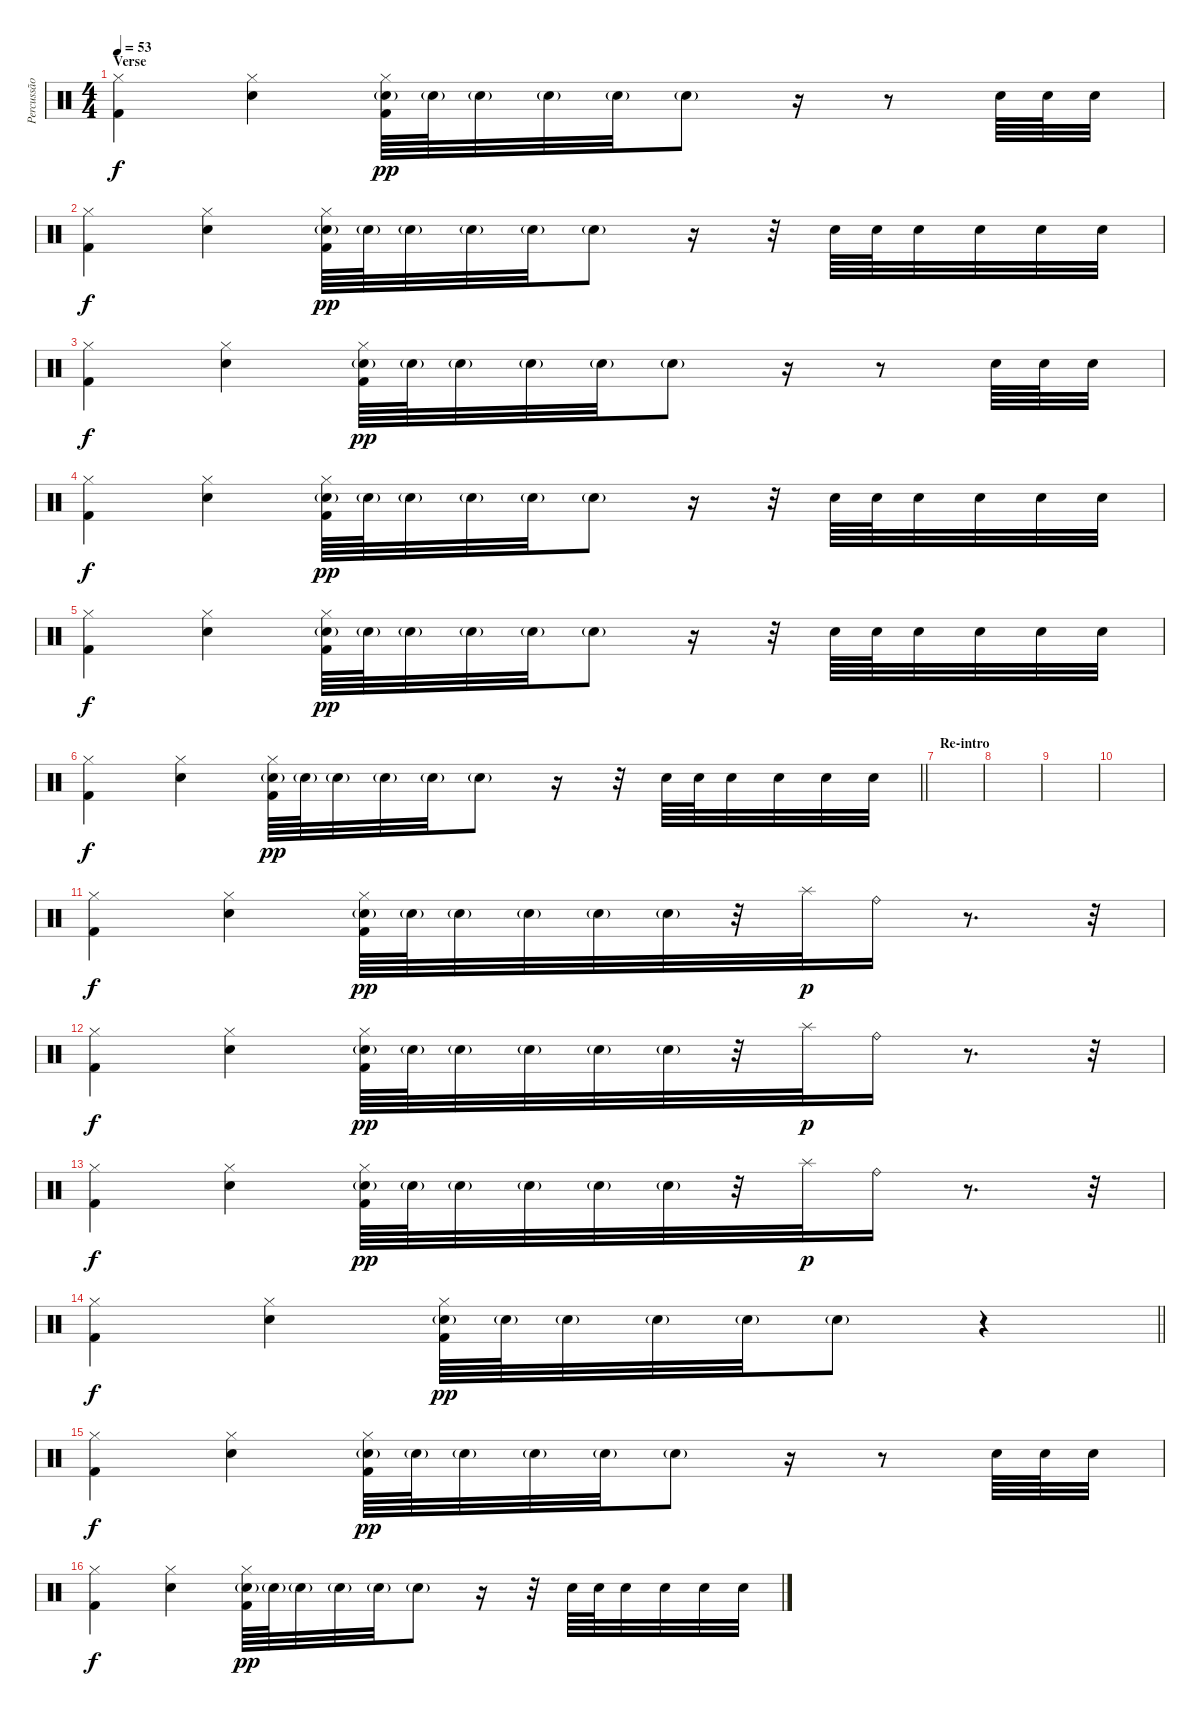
\track ("Percussão" "Percussão") {instrument percussion}
\staff {score}
\articulation defaults
\ts (4 4)
\section ("" "Verse")
\tempo 53
\clef neutral
\ks c
("Hi-Hat (closed)" "Kick (hit) 2").4{dy f} ("Hi-Hat (closed)" "Electric Snare (hit)").4 ("Hi-Hat (closed)" "Electric Snare (hit)"{g} "Kick (hit) 2").64{dy pp} "Electric Snare (hit)"{g}.64 "Electric Snare (hit)"{g}.32 "Electric Snare (hit)"{g}.32 "Electric Snare (hit)"{g}.32 "Electric Snare (hit)"{g}.8 r.16 r.8 "Electric Snare (hit)".64 "Electric Snare (hit)".64 "Electric Snare (hit)".32 |
("Hi-Hat (closed)" "Kick (hit) 2").4{dy f} ("Hi-Hat (closed)" "Electric Snare (hit)").4 ("Hi-Hat (closed)" "Electric Snare (hit)"{g} "Kick (hit) 2").64{dy pp} "Electric Snare (hit)"{g}.64 "Electric Snare (hit)"{g}.32 "Electric Snare (hit)"{g}.32 "Electric Snare (hit)"{g}.32 "Electric Snare (hit)"{g}.8 r.16 r.32 "Electric Snare (hit)".64 "Electric Snare (hit)".64 "Electric Snare (hit)".32 "Electric Snare (hit)".32 "Electric Snare (hit)".32 "Electric Snare (hit)".32 |
("Hi-Hat (closed)" "Kick (hit) 2").4{dy f} ("Hi-Hat (closed)" "Electric Snare (hit)").4 ("Hi-Hat (closed)" "Electric Snare (hit)"{g} "Kick (hit) 2").64{dy pp} "Electric Snare (hit)"{g}.64 "Electric Snare (hit)"{g}.32 "Electric Snare (hit)"{g}.32 "Electric Snare (hit)"{g}.32 "Electric Snare (hit)"{g}.8 r.16 r.8 "Electric Snare (hit)".64 "Electric Snare (hit)".64 "Electric Snare (hit)".32 |
("Hi-Hat (closed)" "Kick (hit) 2").4{dy f} ("Hi-Hat (closed)" "Electric Snare (hit)").4 ("Hi-Hat (closed)" "Electric Snare (hit)"{g} "Kick (hit) 2").64{dy pp} "Electric Snare (hit)"{g}.64 "Electric Snare (hit)"{g}.32 "Electric Snare (hit)"{g}.32 "Electric Snare (hit)"{g}.32 "Electric Snare (hit)"{g}.8 r.16 r.32 "Electric Snare (hit)".64 "Electric Snare (hit)".64 "Electric Snare (hit)".32 "Electric Snare (hit)".32 "Electric Snare (hit)".32 "Electric Snare (hit)".32 |
("Hi-Hat (closed)" "Kick (hit) 2").4{dy f} ("Hi-Hat (closed)" "Electric Snare (hit)").4 ("Hi-Hat (closed)" "Electric Snare (hit)"{g} "Kick (hit) 2").64{dy pp} "Electric Snare (hit)"{g}.64 "Electric Snare (hit)"{g}.32 "Electric Snare (hit)"{g}.32 "Electric Snare (hit)"{g}.32 "Electric Snare (hit)"{g}.8 r.16 r.32 "Electric Snare (hit)".64 "Electric Snare (hit)".64 "Electric Snare (hit)".32 "Electric Snare (hit)".32 "Electric Snare (hit)".32 "Electric Snare (hit)".32 |
\barLineRight lightlight
("Hi-Hat (closed)" "Kick (hit) 2").4{dy f} ("Hi-Hat (closed)" "Electric Snare (hit)").4 ("Hi-Hat (closed)" "Electric Snare (hit)"{g} "Kick (hit) 2").64{dy pp} "Electric Snare (hit)"{g}.64 "Electric Snare (hit)"{g}.32 "Electric Snare (hit)"{g}.32 "Electric Snare (hit)"{g}.32 "Electric Snare (hit)"{g}.8 r.16 r.32 "Electric Snare (hit)".64 "Electric Snare (hit)".64 "Electric Snare (hit)".32 "Electric Snare (hit)".32 "Electric Snare (hit)".32 "Electric Snare (hit)".32 |
\section ("" "Re-intro")
|
|
|
|
("Hi-Hat (closed)" "Kick (hit) 2").4{dy f} ("Hi-Hat (closed)" "Electric Snare (hit)").4 ("Hi-Hat (closed)" "Electric Snare (hit)"{g} "Kick (hit) 2").64{dy pp} "Electric Snare (hit)"{g}.64 "Electric Snare (hit)"{g}.32 "Electric Snare (hit)"{g}.32 "Electric Snare (hit)"{g}.32 "Electric Snare (hit)"{g}.32 r.32 "Splash (hit)".32{dy p} "Ride (bell)".16 r.8{d} r.32 |
("Hi-Hat (closed)" "Kick (hit) 2").4{dy f} ("Hi-Hat (closed)" "Electric Snare (hit)").4 ("Hi-Hat (closed)" "Electric Snare (hit)"{g} "Kick (hit) 2").64{dy pp} "Electric Snare (hit)"{g}.64 "Electric Snare (hit)"{g}.32 "Electric Snare (hit)"{g}.32 "Electric Snare (hit)"{g}.32 "Electric Snare (hit)"{g}.32 r.32 "Splash (hit)".32{dy p} "Ride (bell)".16 r.8{d} r.32 |
("Hi-Hat (closed)" "Kick (hit) 2").4{dy f} ("Hi-Hat (closed)" "Electric Snare (hit)").4 ("Hi-Hat (closed)" "Electric Snare (hit)"{g} "Kick (hit) 2").64{dy pp} "Electric Snare (hit)"{g}.64 "Electric Snare (hit)"{g}.32 "Electric Snare (hit)"{g}.32 "Electric Snare (hit)"{g}.32 "Electric Snare (hit)"{g}.32 r.32 "Splash (hit)".32{dy p} "Ride (bell)".16 r.8{d} r.32 |
\barLineRight lightlight
("Hi-Hat (closed)" "Kick (hit) 2").4{dy f} ("Hi-Hat (closed)" "Electric Snare (hit)").4 ("Hi-Hat (closed)" "Electric Snare (hit)"{g} "Kick (hit) 2").64{dy pp} "Electric Snare (hit)"{g}.64 "Electric Snare (hit)"{g}.32 "Electric Snare (hit)"{g}.32 "Electric Snare (hit)"{g}.32 "Electric Snare (hit)"{g}.8 r.4 |
("Hi-Hat (closed)" "Kick (hit) 2").4{dy f} ("Hi-Hat (closed)" "Electric Snare (hit)").4 ("Hi-Hat (closed)" "Electric Snare (hit)"{g} "Kick (hit) 2").64{dy pp} "Electric Snare (hit)"{g}.64 "Electric Snare (hit)"{g}.32 "Electric Snare (hit)"{g}.32 "Electric Snare (hit)"{g}.32 "Electric Snare (hit)"{g}.8 r.16 r.8 "Electric Snare (hit)".64 "Electric Snare (hit)".64 "Electric Snare (hit)".32 |
("Hi-Hat (closed)" "Kick (hit) 2").4{dy f} ("Hi-Hat (closed)" "Electric Snare (hit)").4 ("Hi-Hat (closed)" "Electric Snare (hit)"{g} "Kick (hit) 2").64{dy pp} "Electric Snare (hit)"{g}.64 "Electric Snare (hit)"{g}.32 "Electric Snare (hit)"{g}.32 "Electric Snare (hit)"{g}.32 "Electric Snare (hit)"{g}.8 r.16 r.32 "Electric Snare (hit)".64 "Electric Snare (hit)".64 "Electric Snare (hit)".32 "Electric Snare (hit)".32 "Electric Snare (hit)".32 "Electric Snare (hit)".32
